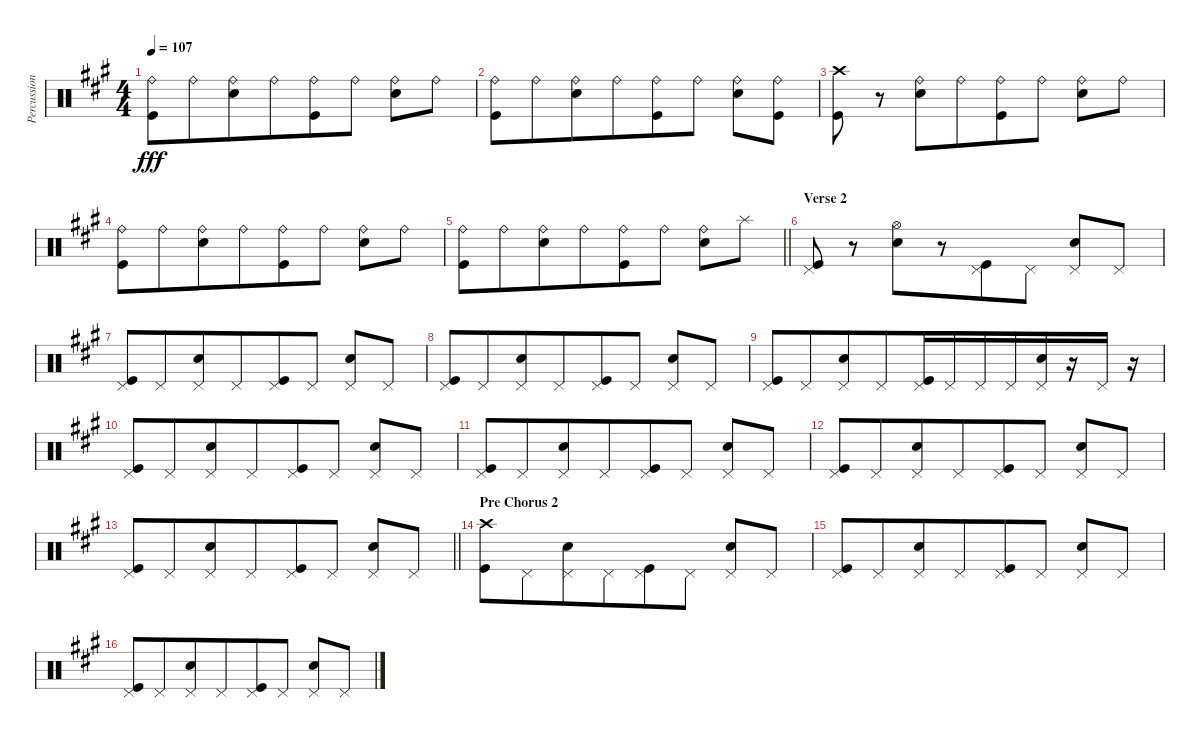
\track ("Percussion" "Percussion") {instrument percussion}
\staff {score}
\articulation defaults
\ts (4 4)
\tempo 107
\clef neutral
\ks a
("Kick (hit)" "Ride (bell)").8{dy fff} "Ride (bell)".8{beam merge} ("Electric Snare (hit)" "Ride (bell)").8{beam merge} "Ride (bell)".8{beam merge} ("Ride (bell)" "Kick (hit)").8{beam merge} "Ride (bell)".8 ("Ride (bell)" "Electric Snare (hit)").8{beam merge} "Ride (bell)".8 |
("Kick (hit)" "Ride (bell)").8 "Ride (bell)".8{beam merge} ("Electric Snare (hit)" "Ride (bell)").8{beam merge} "Ride (bell)".8{beam merge} ("Ride (bell)" "Kick (hit)").8{beam merge} "Ride (bell)".8 ("Ride (bell)" "Electric Snare (hit)").8{beam merge} ("Ride (bell)" "Kick (hit)").8 |
("Kick (hit)" "Crash high (hit)").8 r.8{beam merge} ("Electric Snare (hit)" "Ride (bell)").8{beam merge} "Ride (bell)".8{beam merge} ("Ride (bell)" "Kick (hit)").8{beam merge} "Ride (bell)".8 ("Ride (bell)" "Electric Snare (hit)").8{beam merge} "Ride (bell)".8 |
("Kick (hit)" "Ride (bell)").8 "Ride (bell)".8{beam merge} ("Electric Snare (hit)" "Ride (bell)").8{beam merge} "Ride (bell)".8{beam merge} ("Ride (bell)" "Kick (hit)").8{beam merge} "Ride (bell)".8 ("Ride (bell)" "Electric Snare (hit)").8{beam merge} "Ride (bell)".8 |
\barLineRight lightlight
("Kick (hit)" "Ride (bell)").8 "Ride (bell)".8{beam merge} ("Electric Snare (hit)" "Ride (bell)").8{beam merge} "Ride (bell)".8{beam merge} ("Ride (bell)" "Kick (hit)").8{beam merge} "Ride (bell)".8 ("Ride (bell)" "Electric Snare (hit)").8{beam merge} "Splash (hit)".8 |
\section ("" "Verse 2")
("Kick (hit)" "Pedal Hi-Hat (hit)").8 r.8{beam merge} ("Electric Snare (hit)" "Hi-Hat (open)").8{beam merge} r.8{beam merge} ("Kick (hit)" "Pedal Hi-Hat (hit)").8{beam merge} "Pedal Hi-Hat (hit)".8 ("Electric Snare (hit)" "Pedal Hi-Hat (hit)").8{beam merge} "Pedal Hi-Hat (hit)".8 |
("Kick (hit)" "Pedal Hi-Hat (hit)").8 "Pedal Hi-Hat (hit)".8{beam merge} ("Electric Snare (hit)" "Pedal Hi-Hat (hit)").8{beam merge} "Pedal Hi-Hat (hit)".8{beam merge} ("Kick (hit)" "Pedal Hi-Hat (hit)").8{beam merge} "Pedal Hi-Hat (hit)".8 ("Electric Snare (hit)" "Pedal Hi-Hat (hit)").8{beam merge} "Pedal Hi-Hat (hit)".8 |
("Kick (hit)" "Pedal Hi-Hat (hit)").8 "Pedal Hi-Hat (hit)".8{beam merge} ("Electric Snare (hit)" "Pedal Hi-Hat (hit)").8{beam merge} "Pedal Hi-Hat (hit)".8{beam merge} ("Kick (hit)" "Pedal Hi-Hat (hit)").8{beam merge} "Pedal Hi-Hat (hit)".8 ("Electric Snare (hit)" "Pedal Hi-Hat (hit)").8{beam merge} "Pedal Hi-Hat (hit)".8 |
("Kick (hit)" "Pedal Hi-Hat (hit)").8 "Pedal Hi-Hat (hit)".8{beam merge} ("Electric Snare (hit)" "Pedal Hi-Hat (hit)").8{beam merge} "Pedal Hi-Hat (hit)".8{beam merge} ("Kick (hit)" "Pedal Hi-Hat (hit)").16{beam merge} "Pedal Hi-Hat (hit)".16 "Pedal Hi-Hat (hit)".16{beam merge} "Pedal Hi-Hat (hit)".16{beam merge} ("Electric Snare (hit)" "Pedal Hi-Hat (hit)").16 r.16{beam merge} "Pedal Hi-Hat (hit)".16{beam merge} r.16 |
("Kick (hit)" "Pedal Hi-Hat (hit)").8 "Pedal Hi-Hat (hit)".8{beam merge} ("Electric Snare (hit)" "Pedal Hi-Hat (hit)").8{beam merge} "Pedal Hi-Hat (hit)".8{beam merge} ("Kick (hit)" "Pedal Hi-Hat (hit)").8{beam merge} "Pedal Hi-Hat (hit)".8 ("Electric Snare (hit)" "Pedal Hi-Hat (hit)").8{beam merge} "Pedal Hi-Hat (hit)".8 |
("Kick (hit)" "Pedal Hi-Hat (hit)").8 "Pedal Hi-Hat (hit)".8{beam merge} ("Electric Snare (hit)" "Pedal Hi-Hat (hit)").8{beam merge} "Pedal Hi-Hat (hit)".8{beam merge} ("Kick (hit)" "Pedal Hi-Hat (hit)").8{beam merge} "Pedal Hi-Hat (hit)".8 ("Electric Snare (hit)" "Pedal Hi-Hat (hit)").8{beam merge} "Pedal Hi-Hat (hit)".8 |
("Kick (hit)" "Pedal Hi-Hat (hit)").8 "Pedal Hi-Hat (hit)".8{beam merge} ("Electric Snare (hit)" "Pedal Hi-Hat (hit)").8{beam merge} "Pedal Hi-Hat (hit)".8{beam merge} ("Kick (hit)" "Pedal Hi-Hat (hit)").8{beam merge} "Pedal Hi-Hat (hit)".8 ("Electric Snare (hit)" "Pedal Hi-Hat (hit)").8{beam merge} "Pedal Hi-Hat (hit)".8 |
\barLineRight lightlight
("Kick (hit)" "Pedal Hi-Hat (hit)").8 "Pedal Hi-Hat (hit)".8{beam merge} ("Electric Snare (hit)" "Pedal Hi-Hat (hit)").8{beam merge} "Pedal Hi-Hat (hit)".8{beam merge} ("Kick (hit)" "Pedal Hi-Hat (hit)").8{beam merge} "Pedal Hi-Hat (hit)".8 ("Electric Snare (hit)" "Pedal Hi-Hat (hit)").8{beam merge} "Pedal Hi-Hat (hit)".8 |
\section ("" "Pre Chorus 2")
("Kick (hit)" "Crash high (hit)").8 "Pedal Hi-Hat (hit)".8{beam merge} ("Electric Snare (hit)" "Pedal Hi-Hat (hit)").8{beam merge} "Pedal Hi-Hat (hit)".8{beam merge} ("Kick (hit)" "Pedal Hi-Hat (hit)").8{beam merge} "Pedal Hi-Hat (hit)".8 ("Electric Snare (hit)" "Pedal Hi-Hat (hit)").8{beam merge} "Pedal Hi-Hat (hit)".8 |
("Kick (hit)" "Pedal Hi-Hat (hit)").8 "Pedal Hi-Hat (hit)".8{beam merge} ("Electric Snare (hit)" "Pedal Hi-Hat (hit)").8{beam merge} "Pedal Hi-Hat (hit)".8{beam merge} ("Kick (hit)" "Pedal Hi-Hat (hit)").8{beam merge} "Pedal Hi-Hat (hit)".8 ("Electric Snare (hit)" "Pedal Hi-Hat (hit)").8{beam merge} "Pedal Hi-Hat (hit)".8 |
("Kick (hit)" "Pedal Hi-Hat (hit)").8 "Pedal Hi-Hat (hit)".8{beam merge} ("Electric Snare (hit)" "Pedal Hi-Hat (hit)").8{beam merge} "Pedal Hi-Hat (hit)".8{beam merge} ("Kick (hit)" "Pedal Hi-Hat (hit)").8{beam merge} "Pedal Hi-Hat (hit)".8 ("Electric Snare (hit)" "Pedal Hi-Hat (hit)").8{beam merge} "Pedal Hi-Hat (hit)".8
